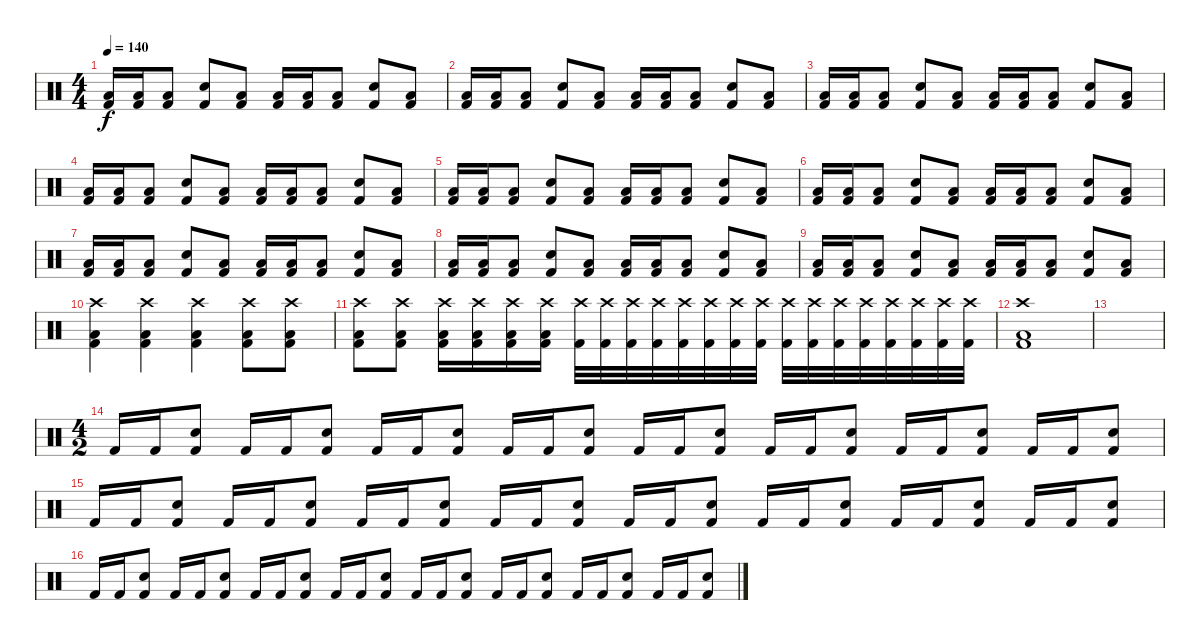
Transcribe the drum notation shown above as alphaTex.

\track "" {instrument percussion}
\staff {score}
\articulation defaults
\ts (4 4)
\tempo 140
\clef neutral
\ks c
("Kick (hit) 2" "Low Tom (hit)").16{dy f} ("Kick (hit) 2" "Low Tom (hit)").16 ("Kick (hit) 2" "Low Tom (hit)").8 ("Kick (hit) 2" "Snare (hit) 2").8 ("Kick (hit) 2" "Low Tom (hit)").8 ("Kick (hit) 2" "Low Tom (hit)").16 ("Kick (hit) 2" "Low Tom (hit)").16 ("Kick (hit) 2" "Low Tom (hit)").8 ("Kick (hit) 2" "Snare (hit) 2").8 ("Kick (hit) 2" "Low Tom (hit)").8 |
("Kick (hit) 2" "Low Tom (hit)").16 ("Kick (hit) 2" "Low Tom (hit)").16 ("Kick (hit) 2" "Low Tom (hit)").8 ("Kick (hit) 2" "Snare (hit) 2").8 ("Kick (hit) 2" "Low Tom (hit)").8 ("Kick (hit) 2" "Low Tom (hit)").16 ("Kick (hit) 2" "Low Tom (hit)").16 ("Kick (hit) 2" "Low Tom (hit)").8 ("Kick (hit) 2" "Snare (hit) 2").8 ("Kick (hit) 2" "Low Tom (hit)").8 |
("Kick (hit) 2" "Low Tom (hit)").16 ("Kick (hit) 2" "Low Tom (hit)").16 ("Kick (hit) 2" "Low Tom (hit)").8 ("Kick (hit) 2" "Snare (hit) 2").8 ("Kick (hit) 2" "Low Tom (hit)").8 ("Kick (hit) 2" "Low Tom (hit)").16 ("Kick (hit) 2" "Low Tom (hit)").16 ("Kick (hit) 2" "Low Tom (hit)").8 ("Kick (hit) 2" "Snare (hit) 2").8 ("Kick (hit) 2" "Low Tom (hit)").8 |
("Kick (hit) 2" "Low Tom (hit)").16 ("Kick (hit) 2" "Low Tom (hit)").16 ("Kick (hit) 2" "Low Tom (hit)").8 ("Kick (hit) 2" "Snare (hit) 2").8 ("Kick (hit) 2" "Low Tom (hit)").8 ("Kick (hit) 2" "Low Tom (hit)").16 ("Kick (hit) 2" "Low Tom (hit)").16 ("Kick (hit) 2" "Low Tom (hit)").8 ("Kick (hit) 2" "Snare (hit) 2").8 ("Kick (hit) 2" "Low Tom (hit)").8 |
("Kick (hit) 2" "Low Tom (hit)").16 ("Kick (hit) 2" "Low Tom (hit)").16 ("Kick (hit) 2" "Low Tom (hit)").8 ("Kick (hit) 2" "Snare (hit) 2").8 ("Kick (hit) 2" "Low Tom (hit)").8 ("Kick (hit) 2" "Low Tom (hit)").16 ("Kick (hit) 2" "Low Tom (hit)").16 ("Kick (hit) 2" "Low Tom (hit)").8 ("Kick (hit) 2" "Snare (hit) 2").8 ("Kick (hit) 2" "Low Tom (hit)").8 |
("Kick (hit) 2" "Low Tom (hit)").16 ("Kick (hit) 2" "Low Tom (hit)").16 ("Kick (hit) 2" "Low Tom (hit)").8 ("Kick (hit) 2" "Snare (hit) 2").8 ("Kick (hit) 2" "Low Tom (hit)").8 ("Kick (hit) 2" "Low Tom (hit)").16 ("Kick (hit) 2" "Low Tom (hit)").16 ("Kick (hit) 2" "Low Tom (hit)").8 ("Kick (hit) 2" "Snare (hit) 2").8 ("Kick (hit) 2" "Low Tom (hit)").8 |
("Kick (hit) 2" "Low Tom (hit)").16 ("Kick (hit) 2" "Low Tom (hit)").16 ("Kick (hit) 2" "Low Tom (hit)").8 ("Kick (hit) 2" "Snare (hit) 2").8 ("Kick (hit) 2" "Low Tom (hit)").8 ("Kick (hit) 2" "Low Tom (hit)").16 ("Kick (hit) 2" "Low Tom (hit)").16 ("Kick (hit) 2" "Low Tom (hit)").8 ("Kick (hit) 2" "Snare (hit) 2").8 ("Kick (hit) 2" "Low Tom (hit)").8 |
("Kick (hit) 2" "Low Tom (hit)").16 ("Kick (hit) 2" "Low Tom (hit)").16 ("Kick (hit) 2" "Low Tom (hit)").8 ("Kick (hit) 2" "Snare (hit) 2").8 ("Kick (hit) 2" "Low Tom (hit)").8 ("Kick (hit) 2" "Low Tom (hit)").16 ("Kick (hit) 2" "Low Tom (hit)").16 ("Kick (hit) 2" "Low Tom (hit)").8 ("Kick (hit) 2" "Snare (hit) 2").8 ("Kick (hit) 2" "Low Tom (hit)").8 |
("Kick (hit) 2" "Low Tom (hit)").16 ("Kick (hit) 2" "Low Tom (hit)").16 ("Kick (hit) 2" "Low Tom (hit)").8 ("Kick (hit) 2" "Snare (hit) 2").8 ("Kick (hit) 2" "Low Tom (hit)").8 ("Kick (hit) 2" "Low Tom (hit)").16 ("Kick (hit) 2" "Low Tom (hit)").16 ("Kick (hit) 2" "Low Tom (hit)").8 ("Kick (hit) 2" "Snare (hit) 2").8 ("Kick (hit) 2" "Low Tom (hit)").8 |
("Kick (hit) 2" "Low Tom (hit)" "Crash high (hit)").4 ("Kick (hit) 2" "Low Tom (hit)" "Crash high (hit)").4 ("Kick (hit) 2" "Low Tom (hit)" "Crash high (hit)").4 ("Kick (hit) 2" "Low Tom (hit)" "Crash high (hit)").8 ("Kick (hit) 2" "Low Tom (hit)" "Crash high (hit)").8 |
("Kick (hit) 2" "Low Tom (hit)" "Crash high (hit)").8 ("Kick (hit) 2" "Low Tom (hit)" "Crash high (hit)").8 ("Kick (hit) 2" "Low Tom (hit)" "Crash high (hit)").16 ("Kick (hit) 2" "Low Tom (hit)" "Crash high (hit)").16 ("Kick (hit) 2" "Low Tom (hit)" "Crash high (hit)").16 ("Kick (hit) 2" "Low Tom (hit)" "Crash high (hit)").16 ("Kick (hit) 2" "Crash high (hit)").32 ("Kick (hit) 2" "Crash high (hit)").32 ("Kick (hit) 2" "Crash high (hit)").32 ("Kick (hit) 2" "Crash high (hit)").32 ("Kick (hit) 2" "Crash high (hit)").32 ("Kick (hit) 2" "Crash high (hit)").32 ("Kick (hit) 2" "Crash high (hit)").32 ("Kick (hit) 2" "Crash high (hit)").32 ("Kick (hit) 2" "Crash high (hit)").32 ("Kick (hit) 2" "Crash high (hit)").32 ("Kick (hit) 2" "Crash high (hit)").32 ("Kick (hit) 2" "Crash high (hit)").32 ("Kick (hit) 2" "Crash high (hit)").32 ("Kick (hit) 2" "Crash high (hit)").32 ("Kick (hit) 2" "Crash high (hit)").32 ("Kick (hit) 2" "Crash high (hit)").32 |
("Kick (hit) 2" "Low Tom (hit)" "Crash high (hit)").1 |
|
\ts (4 2)
"Kick (hit) 2".16 "Kick (hit) 2".16 ("Kick (hit) 2" "Snare (hit) 2").8 "Kick (hit) 2".16 "Kick (hit) 2".16 ("Kick (hit) 2" "Snare (hit) 2").8 "Kick (hit) 2".16 "Kick (hit) 2".16 ("Kick (hit) 2" "Snare (hit) 2").8 "Kick (hit) 2".16 "Kick (hit) 2".16 ("Kick (hit) 2" "Snare (hit) 2").8 "Kick (hit) 2".16 "Kick (hit) 2".16 ("Kick (hit) 2" "Snare (hit) 2").8 "Kick (hit) 2".16 "Kick (hit) 2".16 ("Kick (hit) 2" "Snare (hit) 2").8 "Kick (hit) 2".16 "Kick (hit) 2".16 ("Kick (hit) 2" "Snare (hit) 2").8 "Kick (hit) 2".16 "Kick (hit) 2".16 ("Kick (hit) 2" "Snare (hit) 2").8 |
"Kick (hit) 2".16 "Kick (hit) 2".16 ("Kick (hit) 2" "Snare (hit) 2").8 "Kick (hit) 2".16 "Kick (hit) 2".16 ("Kick (hit) 2" "Snare (hit) 2").8 "Kick (hit) 2".16 "Kick (hit) 2".16 ("Kick (hit) 2" "Snare (hit) 2").8 "Kick (hit) 2".16 "Kick (hit) 2".16 ("Kick (hit) 2" "Snare (hit) 2").8 "Kick (hit) 2".16 "Kick (hit) 2".16 ("Kick (hit) 2" "Snare (hit) 2").8 "Kick (hit) 2".16 "Kick (hit) 2".16 ("Kick (hit) 2" "Snare (hit) 2").8 "Kick (hit) 2".16 "Kick (hit) 2".16 ("Kick (hit) 2" "Snare (hit) 2").8 "Kick (hit) 2".16 "Kick (hit) 2".16 ("Kick (hit) 2" "Snare (hit) 2").8 |
"Kick (hit) 2".16 "Kick (hit) 2".16 ("Kick (hit) 2" "Snare (hit) 2").8 "Kick (hit) 2".16 "Kick (hit) 2".16 ("Kick (hit) 2" "Snare (hit) 2").8 "Kick (hit) 2".16 "Kick (hit) 2".16 ("Kick (hit) 2" "Snare (hit) 2").8 "Kick (hit) 2".16 "Kick (hit) 2".16 ("Kick (hit) 2" "Snare (hit) 2").8 "Kick (hit) 2".16 "Kick (hit) 2".16 ("Kick (hit) 2" "Snare (hit) 2").8 "Kick (hit) 2".16 "Kick (hit) 2".16 ("Kick (hit) 2" "Snare (hit) 2").8 "Kick (hit) 2".16 "Kick (hit) 2".16 ("Kick (hit) 2" "Snare (hit) 2").8 "Kick (hit) 2".16 "Kick (hit) 2".16 ("Kick (hit) 2" "Snare (hit) 2").8
